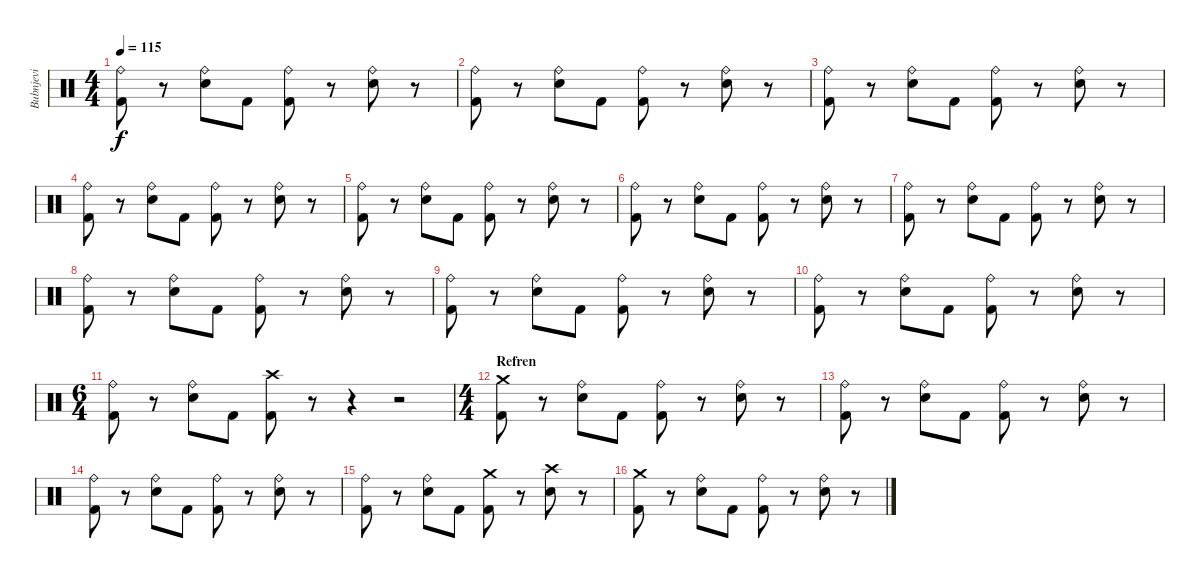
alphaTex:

\track ("Bubnjevi" "Bubnjevi") {instrument percussion}
\staff {score}
\articulation defaults
\ts (4 4)
\tempo 115
\clef neutral
\ks c
("Ride (bell)" "Kick (hit) 2").8{dy f} r.8 ("Ride (bell)" "Electric Snare (hit)").8 "Kick (hit) 2".8 ("Ride (bell)" "Kick (hit) 2").8 r.8 ("Ride (bell)" "Electric Snare (hit)").8 r.8 |
("Ride (bell)" "Kick (hit) 2").8 r.8 ("Ride (bell)" "Electric Snare (hit)").8 "Kick (hit) 2".8 ("Ride (bell)" "Kick (hit) 2").8 r.8 ("Ride (bell)" "Electric Snare (hit)").8 r.8 |
("Ride (bell)" "Kick (hit) 2").8 r.8 ("Ride (bell)" "Electric Snare (hit)").8 "Kick (hit) 2".8 ("Ride (bell)" "Kick (hit) 2").8 r.8 ("Ride (bell)" "Electric Snare (hit)").8 r.8 |
("Ride (bell)" "Kick (hit) 2").8 r.8 ("Ride (bell)" "Electric Snare (hit)").8 "Kick (hit) 2".8 ("Ride (bell)" "Kick (hit) 2").8 r.8 ("Ride (bell)" "Electric Snare (hit)").8 r.8 |
("Ride (bell)" "Kick (hit) 2").8 r.8 ("Ride (bell)" "Electric Snare (hit)").8 "Kick (hit) 2".8 ("Ride (bell)" "Kick (hit) 2").8 r.8 ("Ride (bell)" "Electric Snare (hit)").8 r.8 |
("Ride (bell)" "Kick (hit) 2").8 r.8 ("Ride (bell)" "Electric Snare (hit)").8 "Kick (hit) 2".8 ("Ride (bell)" "Kick (hit) 2").8 r.8 ("Ride (bell)" "Electric Snare (hit)").8 r.8 |
("Ride (bell)" "Kick (hit) 2").8 r.8 ("Ride (bell)" "Electric Snare (hit)").8 "Kick (hit) 2".8 ("Ride (bell)" "Kick (hit) 2").8 r.8 ("Ride (bell)" "Electric Snare (hit)").8 r.8 |
("Ride (bell)" "Kick (hit) 2").8 r.8 ("Ride (bell)" "Electric Snare (hit)").8 "Kick (hit) 2".8 ("Ride (bell)" "Kick (hit) 2").8 r.8 ("Ride (bell)" "Electric Snare (hit)").8 r.8 |
("Ride (bell)" "Kick (hit) 2").8 r.8 ("Ride (bell)" "Electric Snare (hit)").8 "Kick (hit) 2".8 ("Ride (bell)" "Kick (hit) 2").8 r.8 ("Ride (bell)" "Electric Snare (hit)").8 r.8 |
("Ride (bell)" "Kick (hit) 2").8 r.8 ("Ride (bell)" "Electric Snare (hit)").8 "Kick (hit) 2".8 ("Ride (bell)" "Kick (hit) 2").8 r.8 ("Ride (bell)" "Electric Snare (hit)").8 r.8 |
\ts (6 4)
("Ride (bell)" "Kick (hit) 2").8 r.8 ("Ride (bell)" "Electric Snare (hit)").8 "Kick (hit) 2".8 ("Crash high (hit)" "Kick (hit) 2").8 r.8 r.4 r.2 |
\ts (4 4)
\section ("" "Refren")
("Crash medium (hit)" "Kick (hit) 2").8 r.8 ("Ride (bell)" "Electric Snare (hit)").8 "Kick (hit) 2".8 ("Ride (bell)" "Kick (hit) 2").8 r.8 ("Ride (bell)" "Electric Snare (hit)").8 r.8 |
("Ride (bell)" "Kick (hit) 2").8 r.8 ("Ride (bell)" "Electric Snare (hit)").8 "Kick (hit) 2".8 ("Ride (bell)" "Kick (hit) 2").8 r.8 ("Ride (bell)" "Electric Snare (hit)").8 r.8 |
("Ride (bell)" "Kick (hit) 2").8 r.8 ("Ride (bell)" "Electric Snare (hit)").8 "Kick (hit) 2".8 ("Ride (bell)" "Kick (hit) 2").8 r.8 ("Ride (bell)" "Electric Snare (hit)").8 r.8 |
("Ride (bell)" "Kick (hit) 2").8 r.8 ("Ride (bell)" "Electric Snare (hit)").8 "Kick (hit) 2".8 ("Crash medium (hit)" "Kick (hit) 2").8 r.8 ("Crash high (hit)" "Electric Snare (hit)").8 r.8 |
("Crash medium (hit)" "Kick (hit) 2").8 r.8 ("Ride (bell)" "Electric Snare (hit)").8 "Kick (hit) 2".8 ("Ride (bell)" "Kick (hit) 2").8 r.8 ("Ride (bell)" "Electric Snare (hit)").8 r.8
